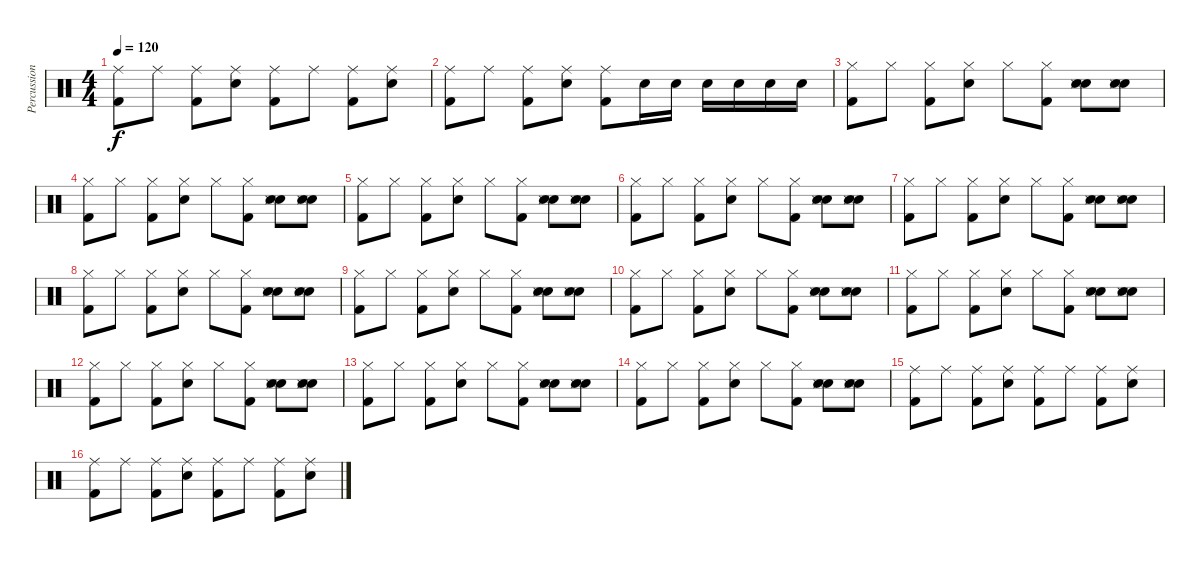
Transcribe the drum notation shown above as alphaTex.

\track ("Percussions" "Percussion") {instrument percussion}
\staff {score}
\articulation defaults
\ts (4 4)
\tempo 120
\clef neutral
\ks c
("Ride (middle)" "Kick (hit) 2").8{dy f} "Ride (middle)".8 ("Ride (middle)" "Kick (hit) 2").8 ("Ride (middle)" "Electric Snare (hit)").8 ("Ride (middle)" "Kick (hit) 2").8 "Ride (middle)".8 ("Ride (middle)" "Kick (hit) 2").8 ("Ride (middle)" "Electric Snare (hit)").8 |
("Ride (middle)" "Kick (hit) 2").8 "Ride (middle)".8 ("Ride (middle)" "Kick (hit) 2").8 ("Ride (middle)" "Electric Snare (hit)").8 ("Ride (middle)" "Kick (hit) 2").8 "Electric Snare (hit)".16 "Electric Snare (hit)".16 "Electric Snare (hit)".16 "Electric Snare (hit)".16 "Electric Snare (hit)".16 "Electric Snare (hit)".16 |
("Hi-Hat (closed)" "Kick (hit) 2").8 "Hi-Hat (closed)".8 ("Hi-Hat (closed)" "Kick (hit) 2").8 ("Hi-Hat (closed)" "Electric Snare (hit)").8 "Hi-Hat (closed)".8 ("Hi-Hat (closed)" "Kick (hit) 2").8 ("Hand Clap (hit)" "Hand Clap (hit)" "Snare (side stick) 3").8 ("Hand Clap (hit)" "Hand Clap (hit)" "Snare (side stick) 3").8 |
("Hi-Hat (closed)" "Kick (hit) 2").8 "Hi-Hat (closed)".8 ("Hi-Hat (closed)" "Kick (hit) 2").8 ("Hi-Hat (closed)" "Electric Snare (hit)").8 "Hi-Hat (closed)".8 ("Hi-Hat (closed)" "Kick (hit) 2").8 ("Hand Clap (hit)" "Hand Clap (hit)" "Snare (side stick) 3").8 ("Hand Clap (hit)" "Hand Clap (hit)" "Snare (side stick) 3").8 |
("Hi-Hat (closed)" "Kick (hit) 2").8 "Hi-Hat (closed)".8 ("Hi-Hat (closed)" "Kick (hit) 2").8 ("Hi-Hat (closed)" "Electric Snare (hit)").8 "Hi-Hat (closed)".8 ("Hi-Hat (closed)" "Kick (hit) 2").8 ("Hand Clap (hit)" "Hand Clap (hit)" "Snare (side stick) 3").8 ("Hand Clap (hit)" "Hand Clap (hit)" "Snare (side stick) 3").8 |
("Hi-Hat (closed)" "Kick (hit) 2").8 "Hi-Hat (closed)".8 ("Hi-Hat (closed)" "Kick (hit) 2").8 ("Hi-Hat (closed)" "Electric Snare (hit)").8 "Hi-Hat (closed)".8 ("Hi-Hat (closed)" "Kick (hit) 2").8 ("Hand Clap (hit)" "Hand Clap (hit)" "Snare (side stick) 3").8 ("Hand Clap (hit)" "Hand Clap (hit)" "Snare (side stick) 3").8 |
("Hi-Hat (closed)" "Kick (hit) 2").8 "Hi-Hat (closed)".8 ("Hi-Hat (closed)" "Kick (hit) 2").8 ("Hi-Hat (closed)" "Electric Snare (hit)").8 "Hi-Hat (closed)".8 ("Hi-Hat (closed)" "Kick (hit) 2").8 ("Hand Clap (hit)" "Hand Clap (hit)" "Snare (side stick) 3").8 ("Hand Clap (hit)" "Hand Clap (hit)" "Snare (side stick) 3").8 |
("Hi-Hat (closed)" "Kick (hit) 2").8 "Hi-Hat (closed)".8 ("Hi-Hat (closed)" "Kick (hit) 2").8 ("Hi-Hat (closed)" "Electric Snare (hit)").8 "Hi-Hat (closed)".8 ("Hi-Hat (closed)" "Kick (hit) 2").8 ("Hand Clap (hit)" "Hand Clap (hit)" "Snare (side stick) 3").8 ("Hand Clap (hit)" "Hand Clap (hit)" "Snare (side stick) 3").8 |
("Hi-Hat (closed)" "Kick (hit) 2").8 "Hi-Hat (closed)".8 ("Hi-Hat (closed)" "Kick (hit) 2").8 ("Hi-Hat (closed)" "Electric Snare (hit)").8 "Hi-Hat (closed)".8 ("Hi-Hat (closed)" "Kick (hit) 2").8 ("Hand Clap (hit)" "Hand Clap (hit)" "Snare (side stick) 3").8 ("Hand Clap (hit)" "Hand Clap (hit)" "Snare (side stick) 3").8 |
("Hi-Hat (closed)" "Kick (hit) 2").8 "Hi-Hat (closed)".8 ("Hi-Hat (closed)" "Kick (hit) 2").8 ("Hi-Hat (closed)" "Electric Snare (hit)").8 "Hi-Hat (closed)".8 ("Hi-Hat (closed)" "Kick (hit) 2").8 ("Hand Clap (hit)" "Hand Clap (hit)" "Snare (side stick) 3").8 ("Hand Clap (hit)" "Hand Clap (hit)" "Snare (side stick) 3").8 |
("Hi-Hat (closed)" "Kick (hit) 2").8 "Hi-Hat (closed)".8 ("Hi-Hat (closed)" "Kick (hit) 2").8 ("Hi-Hat (closed)" "Electric Snare (hit)").8 "Hi-Hat (closed)".8 ("Hi-Hat (closed)" "Kick (hit) 2").8 ("Hand Clap (hit)" "Hand Clap (hit)" "Snare (side stick) 3").8 ("Hand Clap (hit)" "Hand Clap (hit)" "Snare (side stick) 3").8 |
("Hi-Hat (closed)" "Kick (hit) 2").8 "Hi-Hat (closed)".8 ("Hi-Hat (closed)" "Kick (hit) 2").8 ("Hi-Hat (closed)" "Electric Snare (hit)").8 "Hi-Hat (closed)".8 ("Hi-Hat (closed)" "Kick (hit) 2").8 ("Hand Clap (hit)" "Hand Clap (hit)" "Snare (side stick) 3").8 ("Hand Clap (hit)" "Hand Clap (hit)" "Snare (side stick) 3").8 |
("Hi-Hat (closed)" "Kick (hit) 2").8 "Hi-Hat (closed)".8 ("Hi-Hat (closed)" "Kick (hit) 2").8 ("Hi-Hat (closed)" "Electric Snare (hit)").8 "Hi-Hat (closed)".8 ("Hi-Hat (closed)" "Kick (hit) 2").8 ("Hand Clap (hit)" "Hand Clap (hit)" "Snare (side stick) 3").8 ("Hand Clap (hit)" "Hand Clap (hit)" "Snare (side stick) 3").8 |
("Hi-Hat (closed)" "Kick (hit) 2").8 "Hi-Hat (closed)".8 ("Hi-Hat (closed)" "Kick (hit) 2").8 ("Hi-Hat (closed)" "Electric Snare (hit)").8 "Hi-Hat (closed)".8 ("Hi-Hat (closed)" "Kick (hit) 2").8 ("Hand Clap (hit)" "Hand Clap (hit)" "Snare (side stick) 3").8 ("Hand Clap (hit)" "Hand Clap (hit)" "Snare (side stick) 3").8 |
("Ride (middle)" "Kick (hit) 2").8 "Ride (middle)".8 ("Ride (middle)" "Kick (hit) 2").8 ("Ride (middle)" "Electric Snare (hit)").8 ("Ride (middle)" "Kick (hit) 2").8 "Ride (middle)".8 ("Ride (middle)" "Kick (hit) 2").8 ("Ride (middle)" "Electric Snare (hit)").8 |
("Ride (middle)" "Kick (hit) 2").8 "Ride (middle)".8 ("Ride (middle)" "Kick (hit) 2").8 ("Ride (middle)" "Electric Snare (hit)").8 ("Ride (middle)" "Kick (hit) 2").8 "Ride (middle)".8 ("Ride (middle)" "Kick (hit) 2").8 ("Ride (middle)" "Electric Snare (hit)").8
